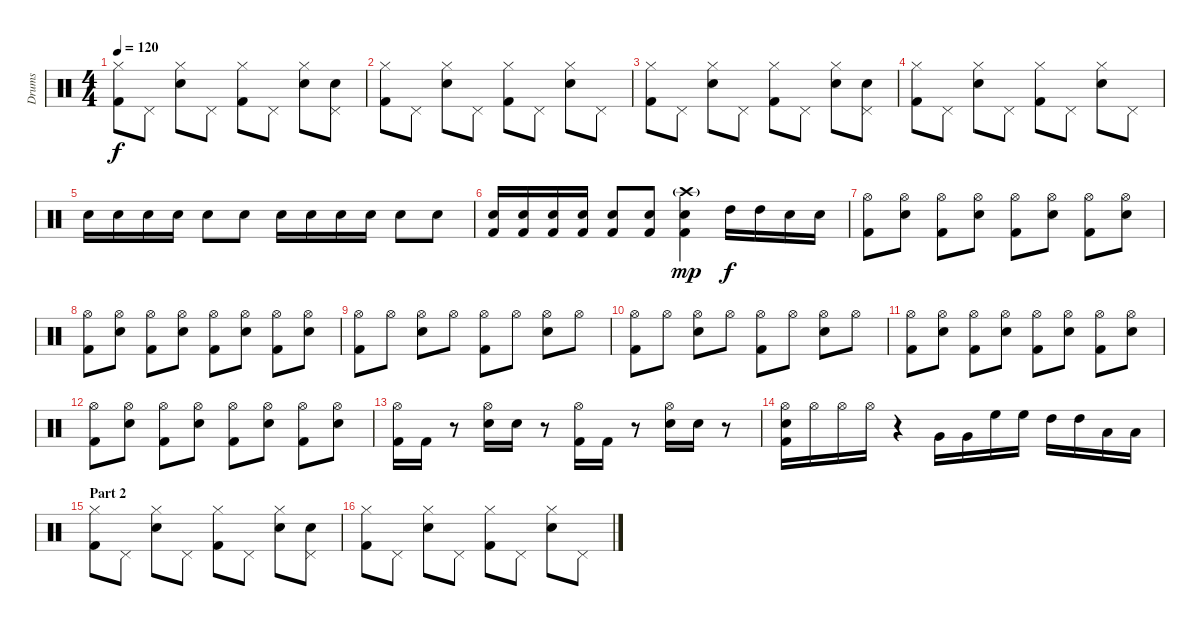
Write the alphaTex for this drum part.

\track ("Drums" "Drums") {instrument percussion}
\staff {score}
\articulation defaults
\ts (4 4)
\tempo 120
\clef neutral
\ks c
("Hi-Hat (closed)" "Kick (hit) 2").8{dy f} "Pedal Hi-Hat (hit)".8 ("Hi-Hat (closed)" "Electric Snare (hit)").8 "Pedal Hi-Hat (hit)".8 ("Hi-Hat (closed)" "Kick (hit) 2").8 "Pedal Hi-Hat (hit)".8 ("Hi-Hat (closed)" "Electric Snare (hit)").8 ("Pedal Hi-Hat (hit)" "Electric Snare (hit)").8 |
("Hi-Hat (closed)" "Kick (hit) 2").8 "Pedal Hi-Hat (hit)".8 ("Hi-Hat (closed)" "Electric Snare (hit)").8 "Pedal Hi-Hat (hit)".8 ("Hi-Hat (closed)" "Kick (hit) 2").8 "Pedal Hi-Hat (hit)".8 ("Hi-Hat (closed)" "Electric Snare (hit)").8 "Pedal Hi-Hat (hit)".8 |
("Hi-Hat (closed)" "Kick (hit) 2").8 "Pedal Hi-Hat (hit)".8 ("Hi-Hat (closed)" "Electric Snare (hit)").8 "Pedal Hi-Hat (hit)".8 ("Hi-Hat (closed)" "Kick (hit) 2").8 "Pedal Hi-Hat (hit)".8 ("Hi-Hat (closed)" "Electric Snare (hit)").8 ("Pedal Hi-Hat (hit)" "Electric Snare (hit)").8 |
("Hi-Hat (closed)" "Kick (hit) 2").8 "Pedal Hi-Hat (hit)".8 ("Hi-Hat (closed)" "Electric Snare (hit)").8 "Pedal Hi-Hat (hit)".8 ("Hi-Hat (closed)" "Kick (hit) 2").8 "Pedal Hi-Hat (hit)".8 ("Hi-Hat (closed)" "Electric Snare (hit)").8 "Pedal Hi-Hat (hit)".8 |
"Electric Snare (hit)".16 "Electric Snare (hit)".16 "Electric Snare (hit)".16 "Electric Snare (hit)".16 "Electric Snare (hit)".8 "Electric Snare (hit)".8 "Electric Snare (hit)".16 "Electric Snare (hit)".16 "Electric Snare (hit)".16 "Electric Snare (hit)".16 "Electric Snare (hit)".8 "Electric Snare (hit)".8 |
("Electric Snare (hit)" "Kick (hit) 2").16 ("Electric Snare (hit)" "Kick (hit) 2").16 ("Electric Snare (hit)" "Kick (hit) 2").16 ("Electric Snare (hit)" "Kick (hit) 2").16 ("Electric Snare (hit)" "Kick (hit) 2").8 ("Electric Snare (hit)" "Kick (hit) 2").8 ("Crash high (hit)"{g} "Electric Snare (hit)" "Kick (hit) 2").4{dy mp} "High Tom (hit)".16{dy f} "High Tom (hit)".16 "Electric Snare (hit)".16 "Electric Snare (hit)".16 |
("Hi-Hat (open)" "Kick (hit) 2").8 ("Hi-Hat (open)" "Electric Snare (hit)").8 ("Hi-Hat (open)" "Kick (hit) 2").8 ("Hi-Hat (open)" "Electric Snare (hit)").8 ("Hi-Hat (open)" "Kick (hit) 2").8 ("Hi-Hat (open)" "Electric Snare (hit)").8 ("Hi-Hat (open)" "Kick (hit) 2").8 ("Hi-Hat (open)" "Electric Snare (hit)").8 |
("Hi-Hat (open)" "Kick (hit) 2").8 ("Hi-Hat (open)" "Electric Snare (hit)").8 ("Hi-Hat (open)" "Kick (hit) 2").8 ("Hi-Hat (open)" "Electric Snare (hit)").8 ("Hi-Hat (open)" "Kick (hit) 2").8 ("Hi-Hat (open)" "Electric Snare (hit)").8 ("Hi-Hat (open)" "Kick (hit) 2").8 ("Hi-Hat (open)" "Electric Snare (hit)").8 |
("Hi-Hat (open)" "Kick (hit) 2").8 "Hi-Hat (open)".8 ("Hi-Hat (open)" "Electric Snare (hit)").8 "Hi-Hat (open)".8 ("Hi-Hat (open)" "Kick (hit) 2").8 "Hi-Hat (open)".8 ("Hi-Hat (open)" "Electric Snare (hit)").8 "Hi-Hat (open)".8 |
("Hi-Hat (open)" "Kick (hit) 2").8 "Hi-Hat (open)".8 ("Hi-Hat (open)" "Electric Snare (hit)").8 "Hi-Hat (open)".8 ("Hi-Hat (open)" "Kick (hit) 2").8 "Hi-Hat (open)".8 ("Hi-Hat (open)" "Electric Snare (hit)").8 "Hi-Hat (open)".8 |
("Hi-Hat (open)" "Kick (hit) 2").8 ("Hi-Hat (open)" "Electric Snare (hit)").8 ("Hi-Hat (open)" "Kick (hit) 2").8 ("Hi-Hat (open)" "Electric Snare (hit)").8 ("Hi-Hat (open)" "Kick (hit) 2").8 ("Hi-Hat (open)" "Electric Snare (hit)").8 ("Hi-Hat (open)" "Kick (hit) 2").8 ("Hi-Hat (open)" "Electric Snare (hit)").8 |
("Hi-Hat (open)" "Kick (hit) 2").8 ("Hi-Hat (open)" "Electric Snare (hit)").8 ("Hi-Hat (open)" "Kick (hit) 2").8 ("Hi-Hat (open)" "Electric Snare (hit)").8 ("Hi-Hat (open)" "Kick (hit) 2").8 ("Hi-Hat (open)" "Electric Snare (hit)").8 ("Hi-Hat (open)" "Kick (hit) 2").8 ("Hi-Hat (open)" "Electric Snare (hit)").8 |
("Hi-Hat (open)" "Kick (hit) 2").16 "Kick (hit) 2".16 r.8 ("Hi-Hat (open)" "Electric Snare (hit)").16 "Electric Snare (hit)".16 r.8 ("Hi-Hat (open)" "Kick (hit) 2").16 "Kick (hit) 2".16 r.8 ("Hi-Hat (open)" "Electric Snare (hit)").16 "Electric Snare (hit)".16 r.8 |
("Hi-Hat (open)" "Electric Snare (hit)" "Kick (hit) 2").16 "Hi-Hat (open)".16 "Hi-Hat (open)".16 "Hi-Hat (open)".16 r.4 "Very Low Tom (hit)".16 "Very Low Tom (hit)".16 "High Floor Tom (hit)".16 "High Floor Tom (hit)".16 "High Tom (hit)".16 "High Tom (hit)".16 "Low Tom (hit)".16 "Low Tom (hit)".16 |
\section ("" "Part 2")
("Hi-Hat (closed)" "Kick (hit) 2").8 "Pedal Hi-Hat (hit)".8 ("Hi-Hat (closed)" "Electric Snare (hit)").8 "Pedal Hi-Hat (hit)".8 ("Hi-Hat (closed)" "Kick (hit) 2").8 "Pedal Hi-Hat (hit)".8 ("Hi-Hat (closed)" "Electric Snare (hit)").8 ("Pedal Hi-Hat (hit)" "Electric Snare (hit)").8 |
("Hi-Hat (closed)" "Kick (hit) 2").8 "Pedal Hi-Hat (hit)".8 ("Hi-Hat (closed)" "Electric Snare (hit)").8 "Pedal Hi-Hat (hit)".8 ("Hi-Hat (closed)" "Kick (hit) 2").8 "Pedal Hi-Hat (hit)".8 ("Hi-Hat (closed)" "Electric Snare (hit)").8 "Pedal Hi-Hat (hit)".8
